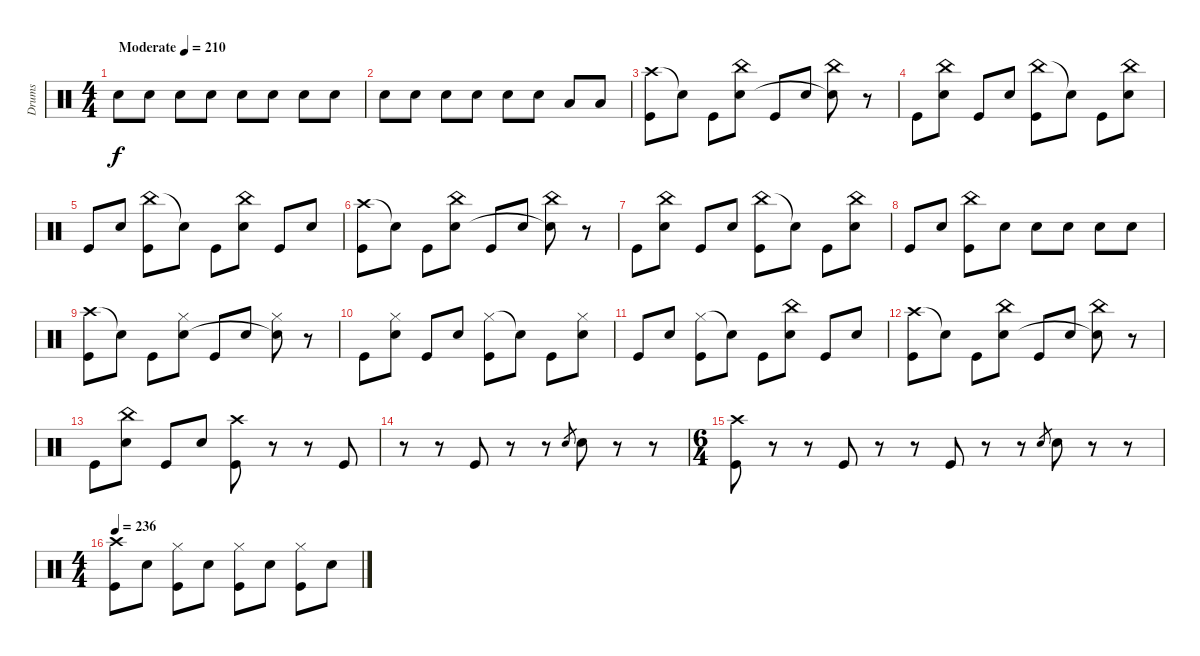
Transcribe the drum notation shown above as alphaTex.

\track ("Drums" "Drums") {instrument percussion}
\staff {score}
\articulation defaults
\ts (4 4)
\tempo (210 "Moderate")
\clef neutral
\ks c "Snare (hit) 2".8{dy f} "Snare (hit) 2".8 "Snare (hit) 2".8 "Snare (hit) 2".8 "Snare (hit) 2".8 "Snare (hit) 2".8 "Snare (hit) 2".8 "Snare (hit) 2".8
|
"Snare (hit) 2".8 "Snare (hit) 2".8 "Snare (hit) 2".8 "Snare (hit) 2".8 "Snare (hit) 2".8 "Snare (hit) 2".8 "Low Tom (hit)".8 "Low Tom (hit)".8 |
("Crash high (hit)" "Kick (hit)").8 "Snare (hit)"{t}.8 "Kick (hit)".8 ("China (hit)" "Snare (hit) 2").8 "Kick (hit)".8 "Snare (hit) 2".8 ("China (hit)" "Snare (hit)"{t}).8 r.8 |
"Kick (hit)".8 ("China (hit)" "Snare (hit) 2").8 "Kick (hit)".8 "Snare (hit) 2".8 ("China (hit)" "Kick (hit)").8 "Snare (hit)"{t}.8 "Kick (hit)".8 ("China (hit)" "Snare (hit) 2").8 |
"Kick (hit)".8 "Snare (hit) 2".8 ("China (hit)" "Kick (hit)").8 "Snare (hit)"{t}.8 "Kick (hit)".8 ("China (hit)" "Snare (hit) 2").8 "Kick (hit)".8 "Snare (hit) 2".8 |
("Crash high (hit)" "Kick (hit)").8 "Snare (hit)"{t}.8 "Kick (hit)".8 ("China (hit)" "Snare (hit) 2").8 "Kick (hit)".8 "Snare (hit) 2".8 ("China (hit)" "Snare (hit)"{t}).8 r.8 |
"Kick (hit)".8 ("China (hit)" "Snare (hit) 2").8 "Kick (hit)".8 "Snare (hit) 2".8 ("China (hit)" "Kick (hit)").8 "Snare (hit)"{t}.8 "Kick (hit)".8 ("China (hit)" "Snare (hit) 2").8 |
"Kick (hit)".8 "Snare (hit) 2".8 ("China (hit)" "Kick (hit)").8 "Snare (hit) 2".8 "Snare (hit) 2".8 "Snare (hit) 2".8 "Snare (hit) 2".8 "Snare (hit) 2".8 |
("Crash high (hit)" "Kick (hit)").8 "Snare (hit)"{t}.8 "Kick (hit)".8 ("Hi-Hat (closed)" "Snare (hit) 2").8 "Kick (hit)".8 "Snare (hit) 2".8 ("Hi-Hat (closed)" "Snare (hit)"{t}).8 r.8 |
"Kick (hit)".8 ("Hi-Hat (closed)" "Snare (hit) 2").8 "Kick (hit)".8 "Snare (hit) 2".8 ("Hi-Hat (closed)" "Kick (hit)").8 "Snare (hit)"{t}.8 "Kick (hit)".8 ("Hi-Hat (closed)" "Snare (hit) 2").8 |
"Kick (hit)".8 "Snare (hit) 2".8 ("Hi-Hat (closed)" "Kick (hit)").8 "Snare (hit)"{t}.8 "Kick (hit)".8 ("China (hit)" "Snare (hit) 2").8 "Kick (hit)".8 "Snare (hit) 2".8 |
("Crash high (hit)" "Kick (hit)").8 "Snare (hit)"{t}.8 "Kick (hit)".8 ("China (hit)" "Snare (hit) 2").8 "Kick (hit)".8 "Snare (hit) 2".8 ("China (hit)" "Snare (hit)"{t}).8 r.8 |
"Kick (hit)".8 ("China (hit)" "Snare (hit) 2").8 "Kick (hit)".8 "Snare (hit) 2".8 ("Crash high (hit)" "Kick (hit)").8 r.8 r.8 "Kick (hit)".8 |
r.8 r.8 "Kick (hit)".8 r.8 r.8 "Snare (hit) 2".8{gr} "Snare (hit) 2".8 r.8 r.8 |
\ts (6 4)
("Crash high (hit)" "Kick (hit)").8 r.8 r.8 "Kick (hit)".8 r.8 r.8 "Kick (hit)".8 r.8 r.8 "Snare (hit) 2".8{gr} "Snare (hit) 2".8 r.8 r.8 |
\ts (4 4)
\tempo 236
("Crash high (hit)" "Kick (hit)").8 "Snare (hit) 2".8 ("Hi-Hat (closed)" "Kick (hit)").8 "Snare (hit) 2".8 ("Hi-Hat (closed)" "Kick (hit)").8 "Snare (hit) 2".8 ("Hi-Hat (closed)" "Kick (hit)").8 "Snare (hit) 2".8
